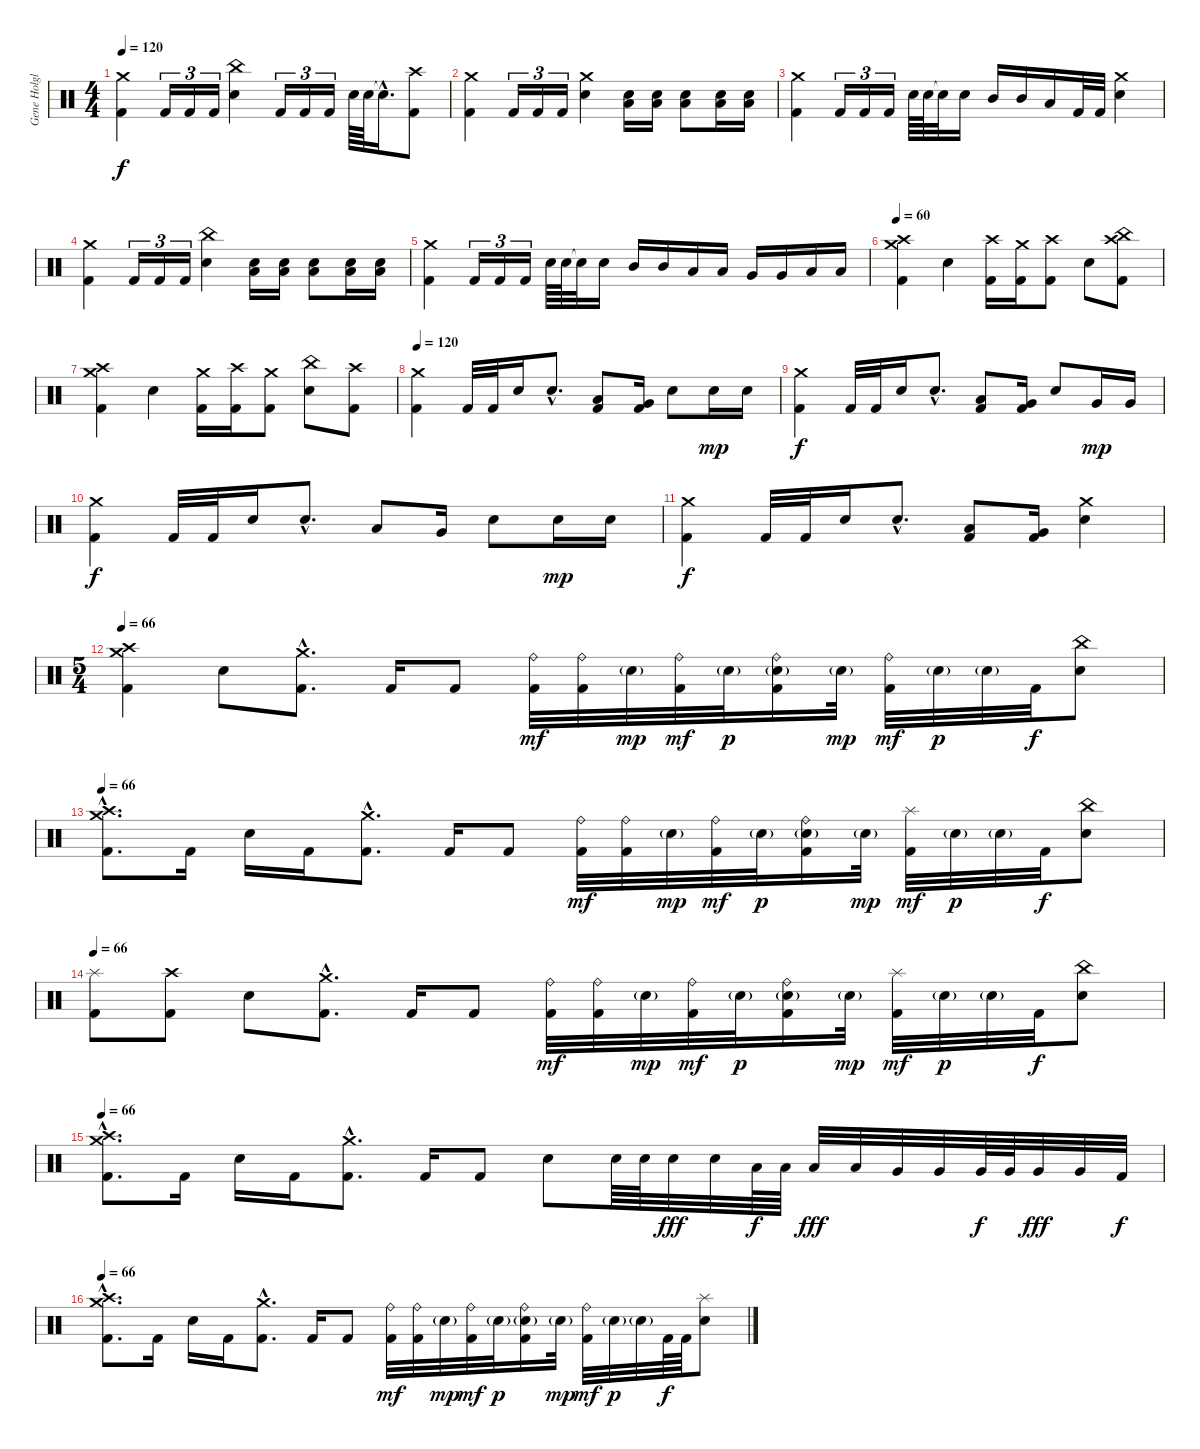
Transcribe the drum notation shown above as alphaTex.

\track ("Gene Holglan" "Gene Holgl") {instrument percussion}
\staff {score}
\articulation defaults
\ts (4 4)
\tempo 120
\clef neutral
\ks c
("Crash medium (hit)" "Kick (hit) 2").4{dy f} "Kick (hit) 2".16{tu (3 2)} "Kick (hit) 2".16{tu (3 2)} "Kick (hit) 2".16{tu (3 2)} ("China (hit)" "Snare (hit) 2").4 "Kick (hit) 2".16{tu (3 2)} "Kick (hit) 2".16{tu (3 2)} "Kick (hit) 2".16{tu (3 2)} "Snare (hit) 2".64 "Snare (hit) 2".64 "Snare (hit)"{hac t}.16{d} ("Crash high (hit)" "Kick (hit) 2").8 |
("Crash medium (hit)" "Kick (hit) 2").4 "Kick (hit) 2".16{tu (3 2)} "Kick (hit) 2".16{tu (3 2)} "Kick (hit) 2".16{tu (3 2)} ("Crash medium (hit)" "Snare (hit) 2").4 ("Snare (hit) 2" "Low Floor Tom (hit)").16 ("Snare (hit) 2" "Low Floor Tom (hit)").16 ("Snare (hit) 2" "Low Floor Tom (hit)").8 ("Snare (hit) 2" "Low Floor Tom (hit)").16 ("Snare (hit) 2" "Low Floor Tom (hit)").16 |
("Crash medium (hit)" "Kick (hit) 2").4 "Kick (hit) 2".16{tu (3 2)} "Kick (hit) 2".16{tu (3 2)} "Kick (hit) 2".16{tu (3 2)} "Snare (hit) 2".64 "Snare (hit) 2".64 "Snare (hit)"{t}.32 "Snare (hit) 2".16 "Mid Tom (hit)".16 "Mid Tom (hit)".16 "Low Tom (hit)".16 "Kick (hit) 2".32 "Kick (hit) 2".32 ("Crash medium (hit)" "Snare (hit) 2").4 |
("Crash medium (hit)" "Kick (hit) 2").4 "Kick (hit) 2".16{tu (3 2)} "Kick (hit) 2".16{tu (3 2)} "Kick (hit) 2".16{tu (3 2)} ("China (hit)" "Snare (hit) 2").4 ("Snare (hit) 2" "Low Floor Tom (hit)").16 ("Snare (hit) 2" "Low Floor Tom (hit)").16 ("Snare (hit) 2" "Low Floor Tom (hit)").8 ("Snare (hit) 2" "Low Floor Tom (hit)").16 ("Snare (hit) 2" "Low Floor Tom (hit)").16 |
("Crash medium (hit)" "Kick (hit) 2").4 "Kick (hit) 2".16{tu (3 2)} "Kick (hit) 2".16{tu (3 2)} "Kick (hit) 2".16{tu (3 2)} "Snare (hit) 2".64 "Snare (hit) 2".64 "Snare (hit)"{t}.32 "Snare (hit) 2".16 "Mid Tom (hit)".16 "Mid Tom (hit)".16 "Low Tom (hit)".16 "Low Tom (hit)".16 "Very Low Tom (hit)".16 "Very Low Tom (hit)".16 "Low Floor Tom (hit)".16 "Low Floor Tom (hit)".16 |
\tempo 60
("Crash medium (hit)" "Crash high (hit)" "Kick (hit) 2").4 "Snare (hit) 2".4 ("Crash high (hit)" "Kick (hit) 2").16 ("Crash medium (hit)" "Kick (hit) 2").16 ("Crash high (hit)" "Kick (hit) 2").8 "Snare (hit) 2".8 ("Crash high (hit)" "China (hit)" "Kick (hit) 2").8 |
("Crash medium (hit)" "Crash high (hit)" "Kick (hit) 2").4 "Snare (hit) 2".4 ("Crash medium (hit)" "Kick (hit) 2").16 ("Crash high (hit)" "Kick (hit) 2").16 ("Crash medium (hit)" "Kick (hit) 2").8 ("China (hit)" "Snare (hit) 2").8 ("Crash high (hit)" "Kick (hit) 2").8 |
\tempo 120
("Crash medium (hit)" "Kick (hit) 2").4 "Kick (hit) 2".32 "Kick (hit) 2".32 "Snare (hit) 2".16 "Snare (hit) 2"{hac}.8{d} ("Low Tom (hit)" "Kick (hit) 2").8 ("Very Low Tom (hit)" "Kick (hit) 2").16 "Snare (hit) 2".8 "Snare (hit) 2".16{dy mp} "Snare (hit) 2".16 |
("Crash medium (hit)" "Kick (hit) 2").4{dy f} "Kick (hit) 2".32 "Kick (hit) 2".32 "Snare (hit) 2".16 "Snare (hit) 2"{hac}.8{d} ("Low Tom (hit)" "Kick (hit) 2").8 ("Very Low Tom (hit)" "Kick (hit) 2").16 "Snare (hit) 2".8 "Very Low Tom (hit)".16{dy mp} "Very Low Tom (hit)".16 |
("Crash medium (hit)" "Kick (hit) 2").4{dy f} "Kick (hit) 2".32 "Kick (hit) 2".32 "Snare (hit) 2".16 "Snare (hit) 2"{hac}.8{d} "Low Tom (hit)".8 "Very Low Tom (hit)".16 "Snare (hit) 2".8 "Snare (hit) 2".16{dy mp} "Snare (hit) 2".16 |
("Crash medium (hit)" "Kick (hit) 2").4{dy f} "Kick (hit) 2".32 "Kick (hit) 2".32 "Snare (hit) 2".16 "Snare (hit) 2"{hac}.8{d} ("Low Tom (hit)" "Kick (hit) 2").8 ("Very Low Tom (hit)" "Kick (hit) 2").16 ("Crash medium (hit)" "Snare (hit) 2").4 |
\ts (5 4)
\tempo 66
("Crash medium (hit)" "Crash high (hit)" "Kick (hit) 2").4 "Snare (hit) 2".8 ("Crash medium (hit)"{hac} "Kick (hit) 2"{hac}).8{d} "Kick (hit) 2".16 "Kick (hit) 2".8 ("Ride (bell)" "Kick (hit) 2").32{dy mf} ("Ride (bell)" "Kick (hit) 2").32 "Snare (hit) 2"{g}.32{dy mp} ("Ride (bell)" "Kick (hit) 2").32{dy mf} "Snare (hit) 2"{g}.32{dy p} ("Ride (bell)" "Snare (hit) 2"{g} "Kick (hit) 2").16 "Snare (hit) 2"{g}.32{dy mp} ("Ride (bell)" "Kick (hit) 2").32{dy mf} "Snare (hit) 2"{g}.32{dy p} "Snare (hit) 2"{g}.32 "Kick (hit) 2".32{dy f} ("China (hit)" "Snare (hit) 2").8 |
\tempo 66
("Crash medium (hit)"{hac} "Crash high (hit)"{hac} "Kick (hit) 2"{hac}).8{d} "Kick (hit) 2".16 "Snare (hit) 2".16 "Kick (hit) 2".16 ("Crash medium (hit)"{hac} "Kick (hit) 2"{hac}).8{d} "Kick (hit) 2".16 "Kick (hit) 2".8 ("Ride (bell)" "Kick (hit) 2").32{dy mf} ("Ride (bell)" "Kick (hit) 2").32 "Snare (hit) 2"{g}.32{dy mp} ("Ride (bell)" "Kick (hit) 2").32{dy mf} "Snare (hit) 2"{g}.32{dy p} ("Ride (bell)" "Snare (hit) 2"{g} "Kick (hit) 2").16 "Snare (hit) 2"{g}.32{dy mp} ("Splash (hit)" "Kick (hit) 2").32{dy mf} "Snare (hit) 2"{g}.32{dy p} "Snare (hit) 2"{g}.32 "Kick (hit) 2".32{dy f} ("China (hit)" "Snare (hit) 2").8 |
\tempo 66
("Splash (hit)" "Kick (hit) 2").8 ("Crash high (hit)" "Kick (hit) 2").8 "Snare (hit) 2".8 ("Crash medium (hit)"{hac} "Kick (hit) 2"{hac}).8{d} "Kick (hit) 2".16 "Kick (hit) 2".8 ("Ride (bell)" "Kick (hit) 2").32{dy mf} ("Ride (bell)" "Kick (hit) 2").32 "Snare (hit) 2"{g}.32{dy mp} ("Ride (bell)" "Kick (hit) 2").32{dy mf} "Snare (hit) 2"{g}.32{dy p} ("Ride (bell)" "Snare (hit) 2"{g} "Kick (hit) 2").16 "Snare (hit) 2"{g}.32{dy mp} ("Splash (hit)" "Kick (hit) 2").32{dy mf} "Snare (hit) 2"{g}.32{dy p} "Snare (hit) 2"{g}.32 "Kick (hit) 2".32{dy f} ("China (hit)" "Snare (hit) 2").8 |
\tempo 66
("Crash medium (hit)"{hac} "Crash high (hit)"{hac} "Kick (hit) 2"{hac}).8{d} "Kick (hit) 2".16 "Snare (hit) 2".16 "Kick (hit) 2".16 ("Crash medium (hit)"{hac} "Kick (hit) 2"{hac}).8{d} "Kick (hit) 2".16 "Kick (hit) 2".8 "Snare (hit) 2".8 "Snare (hit) 2".64 "Snare (hit) 2".64 "Snare (hit) 2".32{dy fff} "Snare (hit) 2".32 "Low Tom (hit)".64{dy f} "Low Tom (hit)".64 "Low Tom (hit)".32{dy fff} "Low Tom (hit)".32 "Very Low Tom (hit)".32 "Very Low Tom (hit)".32 "Very Low Tom (hit)".64{dy f} "Very Low Tom (hit)".64 "Very Low Tom (hit)".32{dy fff} "Very Low Tom (hit)".32 "Kick (hit) 2".32{dy f} |
\tempo 66
("Crash medium (hit)"{hac} "Crash high (hit)"{hac} "Kick (hit) 2"{hac}).8{d} "Kick (hit) 2".16 "Snare (hit) 2".16 "Kick (hit) 2".16 ("Crash medium (hit)"{hac} "Kick (hit) 2"{hac}).8{d} "Kick (hit) 2".16 "Kick (hit) 2".8 ("Ride (bell)" "Kick (hit) 2").32{dy mf} ("Ride (bell)" "Kick (hit) 2").32 "Snare (hit) 2"{g}.32{dy mp} ("Ride (bell)" "Kick (hit) 2").32{dy mf} "Snare (hit) 2"{g}.32{dy p} ("Ride (bell)" "Snare (hit) 2"{g} "Kick (hit) 2").16 "Snare (hit) 2"{g}.32{dy mp} ("Ride (bell)" "Kick (hit) 2").32{dy mf} "Snare (hit) 2"{g}.32{dy p} "Snare (hit) 2"{g}.32 "Kick (hit) 2".64{dy f} "Kick (hit) 2".64 ("Splash (hit)" "Snare (hit) 2").8
